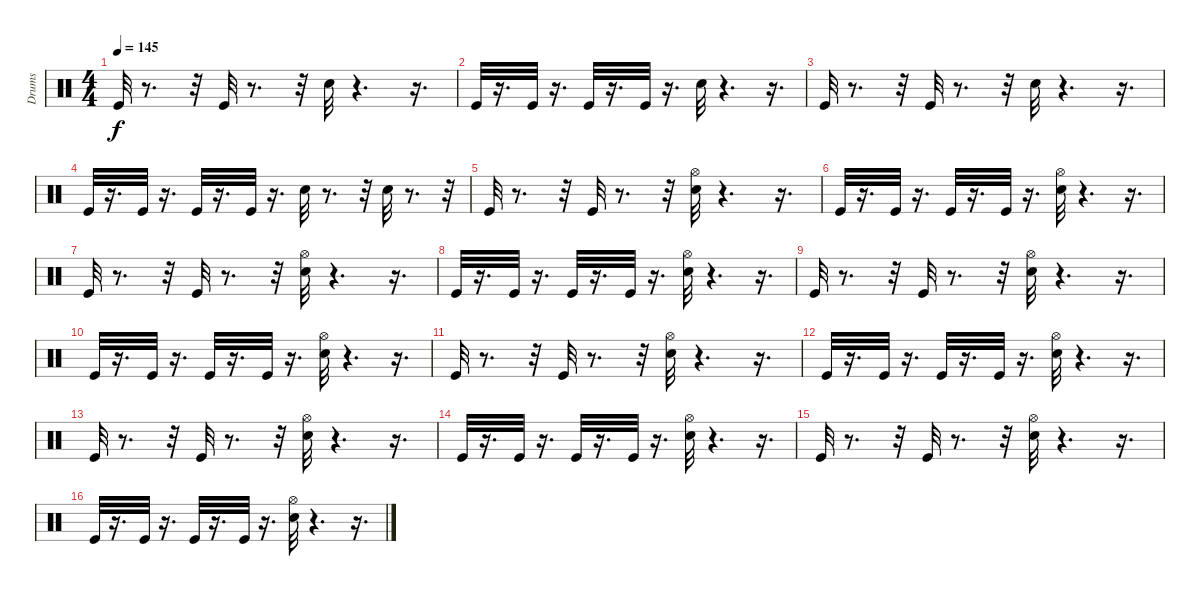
\track ("Drums" "Drums") {instrument percussion}
\staff {score}
\articulation defaults
\ts (4 4)
\tempo 145
\clef neutral
\ks c "Kick (hit)".32{dy f}
r.8{d} r.32 "Kick (hit)".32 r.8{d} r.32 "Snare (hit) 2".32 r.4{d} r.16{d} |
"Kick (hit)".32 r.16{d} "Kick (hit)".32 r.16{d} "Kick (hit)".32 r.16{d} "Kick (hit)".32 r.16{d} "Snare (hit) 2".32 r.4{d} r.16{d} |
"Kick (hit)".32 r.8{d} r.32 "Kick (hit)".32 r.8{d} r.32 "Snare (hit) 2".32 r.4{d} r.16{d} |
"Kick (hit)".32 r.16{d} "Kick (hit)".32 r.16{d} "Kick (hit)".32 r.16{d} "Kick (hit)".32 r.16{d} "Snare (hit) 2".32 r.8{d} r.32 "Snare (hit) 2".32 r.8{d} r.32 |
"Kick (hit)".32 r.8{d} r.32 "Kick (hit)".32 r.8{d} r.32 ("Snare (hit) 2" "Hi-Hat (open)").32 r.4{d} r.16{d} |
"Kick (hit)".32 r.16{d} "Kick (hit)".32 r.16{d} "Kick (hit)".32 r.16{d} "Kick (hit)".32 r.16{d} ("Snare (hit) 2" "Hi-Hat (open)").32 r.4{d} r.16{d} |
"Kick (hit)".32 r.8{d} r.32 "Kick (hit)".32 r.8{d} r.32 ("Snare (hit) 2" "Hi-Hat (open)").32 r.4{d} r.16{d} |
"Kick (hit)".32 r.16{d} "Kick (hit)".32 r.16{d} "Kick (hit)".32 r.16{d} "Kick (hit)".32 r.16{d} ("Snare (hit) 2" "Hi-Hat (open)").32 r.4{d} r.16{d} |
"Kick (hit)".32 r.8{d} r.32 "Kick (hit)".32 r.8{d} r.32 ("Snare (hit) 2" "Hi-Hat (open)").32 r.4{d} r.16{d} |
"Kick (hit)".32 r.16{d} "Kick (hit)".32 r.16{d} "Kick (hit)".32 r.16{d} "Kick (hit)".32 r.16{d} ("Snare (hit) 2" "Hi-Hat (open)").32 r.4{d} r.16{d} |
"Kick (hit)".32 r.8{d} r.32 "Kick (hit)".32 r.8{d} r.32 ("Snare (hit) 2" "Hi-Hat (open)").32 r.4{d} r.16{d} |
"Kick (hit)".32 r.16{d} "Kick (hit)".32 r.16{d} "Kick (hit)".32 r.16{d} "Kick (hit)".32 r.16{d} ("Snare (hit) 2" "Hi-Hat (open)").32 r.4{d} r.16{d} |
"Kick (hit)".32 r.8{d} r.32 "Kick (hit)".32 r.8{d} r.32 ("Snare (hit) 2" "Hi-Hat (open)").32 r.4{d} r.16{d} |
"Kick (hit)".32 r.16{d} "Kick (hit)".32 r.16{d} "Kick (hit)".32 r.16{d} "Kick (hit)".32 r.16{d} ("Snare (hit) 2" "Hi-Hat (open)").32 r.4{d} r.16{d} |
"Kick (hit)".32 r.8{d} r.32 "Kick (hit)".32 r.8{d} r.32 ("Snare (hit) 2" "Hi-Hat (open)").32 r.4{d} r.16{d} |
"Kick (hit)".32 r.16{d} "Kick (hit)".32 r.16{d} "Kick (hit)".32 r.16{d} "Kick (hit)".32 r.16{d} ("Snare (hit) 2" "Hi-Hat (open)").32 r.4{d} r.16{d}
